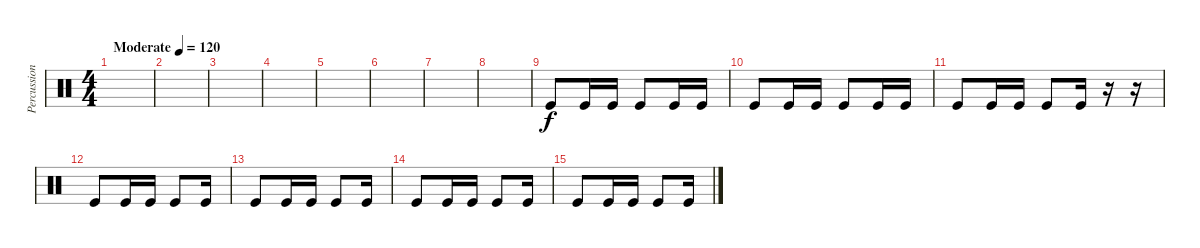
\track ("Percussion" "Percussion") {instrument percussion}
\staff {score}
\articulation defaults
\ts (4 4)
\tempo (120 "Moderate")
\clef neutral
\ks c
|
|
|
|
|
|
|
|
"Kick (hit)".8 "Kick (hit)".16 "Kick (hit)".16 "Kick (hit)".8 "Kick (hit)".16 "Kick (hit)".16 |
"Kick (hit)".8 "Kick (hit)".16 "Kick (hit)".16 "Kick (hit)".8 "Kick (hit)".16 "Kick (hit)".16 |
"Kick (hit)".8 "Kick (hit)".16 "Kick (hit)".16 "Kick (hit)".8 "Kick (hit)".16 r.16 r.16 |
"Kick (hit)".8 "Kick (hit)".16 "Kick (hit)".16 "Kick (hit)".8 "Kick (hit)".16 |
"Kick (hit)".8 "Kick (hit)".16 "Kick (hit)".16 "Kick (hit)".8 "Kick (hit)".16 |
"Kick (hit)".8 "Kick (hit)".16 "Kick (hit)".16 "Kick (hit)".8 "Kick (hit)".16 |
"Kick (hit)".8 "Kick (hit)".16 "Kick (hit)".16 "Kick (hit)".8 "Kick (hit)".16
